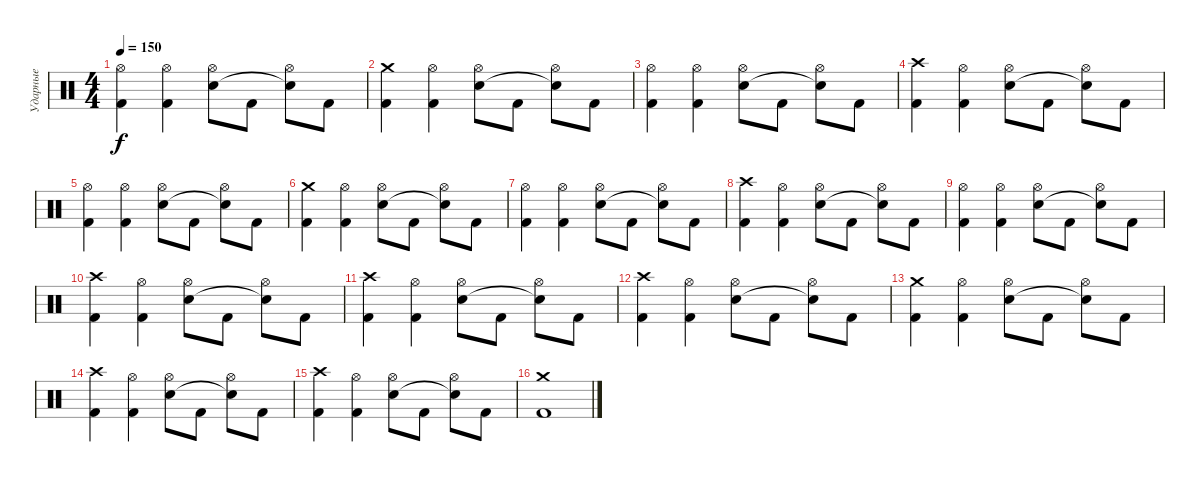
\track ("Ударные" "Ударные") {instrument percussion}
\staff {score}
\articulation defaults
\ts (4 4)
\tempo 150
\clef neutral
\ks c
("Hi-Hat (open)" "Kick (hit) 2").4{dy f} ("Hi-Hat (open)" "Kick (hit) 2").4 ("Hi-Hat (open)" "Snare (hit) 2").8 "Kick (hit) 2".8 ("Hi-Hat (open)" "Snare (hit)"{t}).8 "Kick (hit) 2".8 |
("Crash medium (hit)" "Kick (hit) 2").4 ("Hi-Hat (open)" "Kick (hit) 2").4 ("Hi-Hat (open)" "Snare (hit) 2").8 "Kick (hit) 2".8 ("Hi-Hat (open)" "Snare (hit)"{t}).8 "Kick (hit) 2".8 |
("Hi-Hat (open)" "Kick (hit) 2").4 ("Hi-Hat (open)" "Kick (hit) 2").4 ("Hi-Hat (open)" "Snare (hit) 2").8 "Kick (hit) 2".8 ("Hi-Hat (open)" "Snare (hit)"{t}).8 "Kick (hit) 2".8 |
("Crash high (hit)" "Kick (hit) 2").4 ("Hi-Hat (open)" "Kick (hit) 2").4 ("Hi-Hat (open)" "Snare (hit) 2").8 "Kick (hit) 2".8 ("Hi-Hat (open)" "Snare (hit)"{t}).8 "Kick (hit) 2".8 |
("Hi-Hat (open)" "Kick (hit) 2").4 ("Hi-Hat (open)" "Kick (hit) 2").4 ("Hi-Hat (open)" "Snare (hit) 2").8 "Kick (hit) 2".8 ("Hi-Hat (open)" "Snare (hit)"{t}).8 "Kick (hit) 2".8 |
("Crash medium (hit)" "Kick (hit) 2").4 ("Hi-Hat (open)" "Kick (hit) 2").4 ("Hi-Hat (open)" "Snare (hit) 2").8 "Kick (hit) 2".8 ("Hi-Hat (open)" "Snare (hit)"{t}).8 "Kick (hit) 2".8 |
("Hi-Hat (open)" "Kick (hit) 2").4 ("Hi-Hat (open)" "Kick (hit) 2").4 ("Hi-Hat (open)" "Snare (hit) 2").8 "Kick (hit) 2".8 ("Hi-Hat (open)" "Snare (hit)"{t}).8 "Kick (hit) 2".8 |
("Crash high (hit)" "Kick (hit) 2").4 ("Hi-Hat (open)" "Kick (hit) 2").4 ("Hi-Hat (open)" "Snare (hit) 2").8 "Kick (hit) 2".8 ("Hi-Hat (open)" "Snare (hit)"{t}).8 "Kick (hit) 2".8 |
("Hi-Hat (open)" "Kick (hit) 2").4 ("Hi-Hat (open)" "Kick (hit) 2").4 ("Hi-Hat (open)" "Snare (hit) 2").8 "Kick (hit) 2".8 ("Hi-Hat (open)" "Snare (hit)"{t}).8 "Kick (hit) 2".8 |
("Crash high (hit)" "Kick (hit) 2").4 ("Hi-Hat (open)" "Kick (hit) 2").4 ("Hi-Hat (open)" "Snare (hit) 2").8 "Kick (hit) 2".8 ("Hi-Hat (open)" "Snare (hit)"{t}).8 "Kick (hit) 2".8 |
("Crash high (hit)" "Kick (hit) 2").4 ("Hi-Hat (open)" "Kick (hit) 2").4 ("Hi-Hat (open)" "Snare (hit) 2").8 "Kick (hit) 2".8 ("Hi-Hat (open)" "Snare (hit)"{t}).8 "Kick (hit) 2".8 |
("Crash high (hit)" "Kick (hit) 2").4 ("Hi-Hat (open)" "Kick (hit) 2").4 ("Hi-Hat (open)" "Snare (hit) 2").8 "Kick (hit) 2".8 ("Hi-Hat (open)" "Snare (hit)"{t}).8 "Kick (hit) 2".8 |
("Crash medium (hit)" "Kick (hit) 2").4 ("Hi-Hat (open)" "Kick (hit) 2").4 ("Hi-Hat (open)" "Snare (hit) 2").8 "Kick (hit) 2".8 ("Hi-Hat (open)" "Snare (hit)"{t}).8 "Kick (hit) 2".8 |
("Crash high (hit)" "Kick (hit) 2").4 ("Hi-Hat (open)" "Kick (hit) 2").4 ("Hi-Hat (open)" "Snare (hit) 2").8 "Kick (hit) 2".8 ("Hi-Hat (open)" "Snare (hit)"{t}).8 "Kick (hit) 2".8 |
("Crash high (hit)" "Kick (hit) 2").4 ("Hi-Hat (open)" "Kick (hit) 2").4 ("Hi-Hat (open)" "Snare (hit) 2").8 "Kick (hit) 2".8 ("Hi-Hat (open)" "Snare (hit)"{t}).8 "Kick (hit) 2".8 |
("Kick (hit) 2" "Crash medium (hit)").1
